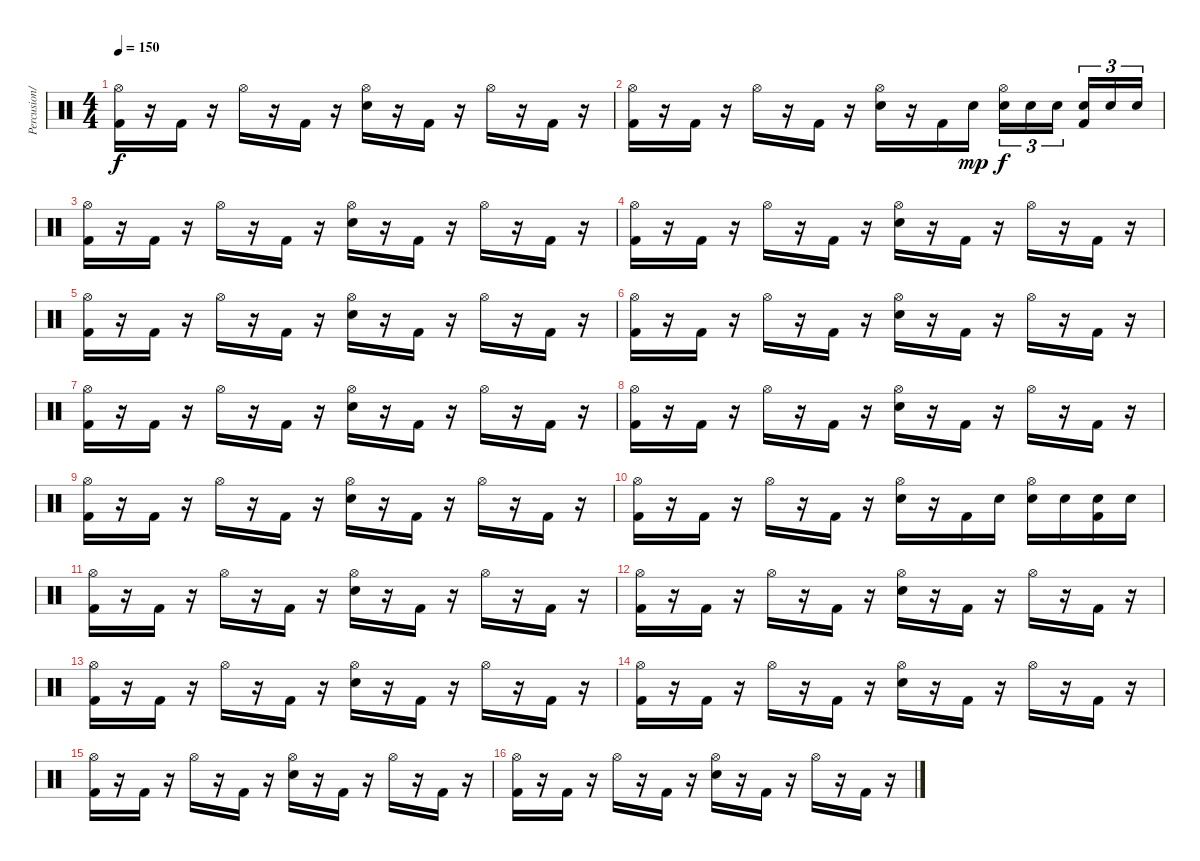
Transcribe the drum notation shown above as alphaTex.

\track ("Percusion/Drum" "Percusion/") {instrument percussion}
\staff {score}
\articulation defaults
\ts (4 4)
\tempo 150
\clef neutral
\ks c
("Hi-Hat (open)" "Kick (hit) 2").16{dy f} r.16 "Kick (hit) 2".16 r.16 "Hi-Hat (open)".16 r.16 "Kick (hit) 2".16 r.16 ("Hi-Hat (open)" "Electric Snare (hit)").16 r.16 "Kick (hit) 2".16 r.16 "Hi-Hat (open)".16 r.16 "Kick (hit) 2".16 r.16 |
("Hi-Hat (open)" "Kick (hit) 2").16 r.16 "Kick (hit) 2".16 r.16 "Hi-Hat (open)".16 r.16 "Kick (hit) 2".16 r.16 ("Hi-Hat (open)" "Electric Snare (hit)").16 r.16 "Kick (hit) 2".16 "Electric Snare (hit)".16{dy mp} ("Hi-Hat (open)" "Electric Snare (hit)").16{tu (3 2) dy f} "Electric Snare (hit)".16{tu (3 2)} "Electric Snare (hit)".16{tu (3 2)} ("Electric Snare (hit)" "Kick (hit) 2").16{tu (3 2)} "Electric Snare (hit)".16{tu (3 2)} "Electric Snare (hit)".16{tu (3 2)} |
("Hi-Hat (open)" "Kick (hit) 2").16 r.16 "Kick (hit) 2".16 r.16 "Hi-Hat (open)".16 r.16 "Kick (hit) 2".16 r.16 ("Hi-Hat (open)" "Electric Snare (hit)").16 r.16 "Kick (hit) 2".16 r.16 "Hi-Hat (open)".16 r.16 "Kick (hit) 2".16 r.16 |
("Hi-Hat (open)" "Kick (hit) 2").16 r.16 "Kick (hit) 2".16 r.16 "Hi-Hat (open)".16 r.16 "Kick (hit) 2".16 r.16 ("Hi-Hat (open)" "Electric Snare (hit)").16 r.16 "Kick (hit) 2".16 r.16 "Hi-Hat (open)".16 r.16 "Kick (hit) 2".16 r.16 |
("Hi-Hat (open)" "Kick (hit) 2").16 r.16 "Kick (hit) 2".16 r.16 "Hi-Hat (open)".16 r.16 "Kick (hit) 2".16 r.16 ("Hi-Hat (open)" "Electric Snare (hit)").16 r.16 "Kick (hit) 2".16 r.16 "Hi-Hat (open)".16 r.16 "Kick (hit) 2".16 r.16 |
("Hi-Hat (open)" "Kick (hit) 2").16 r.16 "Kick (hit) 2".16 r.16 "Hi-Hat (open)".16 r.16 "Kick (hit) 2".16 r.16 ("Hi-Hat (open)" "Electric Snare (hit)").16 r.16 "Kick (hit) 2".16 r.16 "Hi-Hat (open)".16 r.16 "Kick (hit) 2".16 r.16 |
("Hi-Hat (open)" "Kick (hit) 2").16 r.16 "Kick (hit) 2".16 r.16 "Hi-Hat (open)".16 r.16 "Kick (hit) 2".16 r.16 ("Hi-Hat (open)" "Electric Snare (hit)").16 r.16 "Kick (hit) 2".16 r.16 "Hi-Hat (open)".16 r.16 "Kick (hit) 2".16 r.16 |
("Hi-Hat (open)" "Kick (hit) 2").16 r.16 "Kick (hit) 2".16 r.16 "Hi-Hat (open)".16 r.16 "Kick (hit) 2".16 r.16 ("Hi-Hat (open)" "Electric Snare (hit)").16 r.16 "Kick (hit) 2".16 r.16 "Hi-Hat (open)".16 r.16 "Kick (hit) 2".16 r.16 |
("Hi-Hat (open)" "Kick (hit) 2").16 r.16 "Kick (hit) 2".16 r.16 "Hi-Hat (open)".16 r.16 "Kick (hit) 2".16 r.16 ("Hi-Hat (open)" "Electric Snare (hit)").16 r.16 "Kick (hit) 2".16 r.16 "Hi-Hat (open)".16 r.16 "Kick (hit) 2".16 r.16 |
("Hi-Hat (open)" "Kick (hit) 2").16 r.16 "Kick (hit) 2".16 r.16 "Hi-Hat (open)".16 r.16 "Kick (hit) 2".16 r.16 ("Hi-Hat (open)" "Electric Snare (hit)").16 r.16 "Kick (hit) 2".16 "Electric Snare (hit)".16 ("Hi-Hat (open)" "Electric Snare (hit)").16 "Electric Snare (hit)".16 ("Electric Snare (hit)" "Kick (hit) 2").16 "Electric Snare (hit)".16 |
("Hi-Hat (open)" "Kick (hit) 2").16 r.16 "Kick (hit) 2".16 r.16 "Hi-Hat (open)".16 r.16 "Kick (hit) 2".16 r.16 ("Hi-Hat (open)" "Electric Snare (hit)").16 r.16 "Kick (hit) 2".16 r.16 "Hi-Hat (open)".16 r.16 "Kick (hit) 2".16 r.16 |
("Hi-Hat (open)" "Kick (hit) 2").16 r.16 "Kick (hit) 2".16 r.16 "Hi-Hat (open)".16 r.16 "Kick (hit) 2".16 r.16 ("Hi-Hat (open)" "Electric Snare (hit)").16 r.16 "Kick (hit) 2".16 r.16 "Hi-Hat (open)".16 r.16 "Kick (hit) 2".16 r.16 |
("Hi-Hat (open)" "Kick (hit) 2").16 r.16 "Kick (hit) 2".16 r.16 "Hi-Hat (open)".16 r.16 "Kick (hit) 2".16 r.16 ("Hi-Hat (open)" "Electric Snare (hit)").16 r.16 "Kick (hit) 2".16 r.16 "Hi-Hat (open)".16 r.16 "Kick (hit) 2".16 r.16 |
("Hi-Hat (open)" "Kick (hit) 2").16 r.16 "Kick (hit) 2".16 r.16 "Hi-Hat (open)".16 r.16 "Kick (hit) 2".16 r.16 ("Hi-Hat (open)" "Electric Snare (hit)").16 r.16 "Kick (hit) 2".16 r.16 "Hi-Hat (open)".16 r.16 "Kick (hit) 2".16 r.16 |
("Hi-Hat (open)" "Kick (hit) 2").16 r.16 "Kick (hit) 2".16 r.16 "Hi-Hat (open)".16 r.16 "Kick (hit) 2".16 r.16 ("Hi-Hat (open)" "Electric Snare (hit)").16 r.16 "Kick (hit) 2".16 r.16 "Hi-Hat (open)".16 r.16 "Kick (hit) 2".16 r.16 |
("Hi-Hat (open)" "Kick (hit) 2").16 r.16 "Kick (hit) 2".16 r.16 "Hi-Hat (open)".16 r.16 "Kick (hit) 2".16 r.16 ("Hi-Hat (open)" "Electric Snare (hit)").16 r.16 "Kick (hit) 2".16 r.16 "Hi-Hat (open)".16 r.16 "Kick (hit) 2".16 r.16
